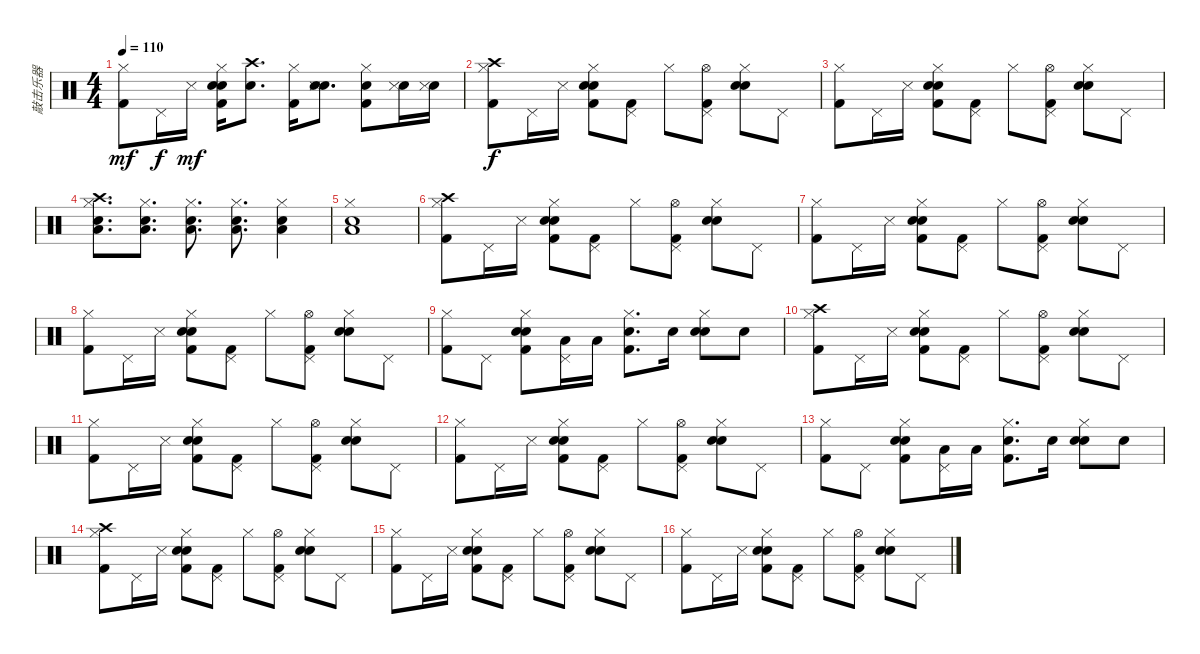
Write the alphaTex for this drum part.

\track ("敲击乐器" "敲击乐器") {instrument percussion}
\staff {score}
\articulation defaults
\ts (4 4)
\tempo 110
\clef neutral
\ks c
("Hi-Hat (closed)" "Kick (hit) 2").8{dy mf} "Pedal Hi-Hat (hit)".16{dy f} "Snare (side stick) 3".16{dy mf} ("Hand Clap (hit)" "Electric Snare (hit)" "Hi-Hat (closed)" "Kick (hit) 2").16 ("Crash high (hit)" "Snare (hit) 2").8{d} ("Hi-Hat (closed)" "Kick (hit) 2").16 ("Hand Clap (hit)" "Snare (side stick) 3" "Electric Snare (hit)").8{d} ("Hi-Hat (closed)" "Electric Snare (hit)" "Kick (hit) 2").8 ("Hand Clap (hit)" "Snare (side stick) 3").16 ("Hand Clap (hit)" "Snare (side stick) 3").16 |
("Crash high (hit)" "Hi-Hat (closed)" "Kick (hit) 2").8{dy f} "Pedal Hi-Hat (hit)".16 "Snare (side stick) 3".16 ("Hand Clap (hit)" "Electric Snare (hit)" "Hi-Hat (closed)" "Kick (hit) 2").8 ("Pedal Hi-Hat (hit)" "Kick (hit) 2").8 "Hi-Hat (closed)".8 ("Hi-Hat (open)" "Pedal Hi-Hat (hit)" "Kick (hit) 2").8 ("Hand Clap (hit)" "Electric Snare (hit)" "Hi-Hat (closed)").8 "Pedal Hi-Hat (hit)".8 |
("Hi-Hat (closed)" "Kick (hit) 2").8 "Pedal Hi-Hat (hit)".16 "Snare (side stick) 3".16 ("Hand Clap (hit)" "Electric Snare (hit)" "Hi-Hat (closed)" "Kick (hit) 2").8 ("Pedal Hi-Hat (hit)" "Kick (hit) 2").8 "Hi-Hat (closed)".8 ("Hi-Hat (open)" "Pedal Hi-Hat (hit)" "Kick (hit) 2").8 ("Hand Clap (hit)" "Electric Snare (hit)" "Hi-Hat (closed)").8 "Pedal Hi-Hat (hit)".8 |
("Crash high (hit)" "Hi-Hat (closed)" "Electric Snare (hit)" "Low Tom (hit)").8{d} ("Hi-Hat (closed)" "Snare (hit) 2" "Low Tom (hit)").8{d} ("Hi-Hat (closed)" "Electric Snare (hit)" "Low Tom (hit)").8{d} ("Hi-Hat (closed)" "Snare (hit) 2" "Low Tom (hit)").8{d} ("Hi-Hat (closed)" "Electric Snare (hit)" "Low Tom (hit)").4 |
("Hi-Hat (closed)" "Electric Snare (hit)" "Low Tom (hit)").1 |
("Crash high (hit)" "Hi-Hat (closed)" "Kick (hit) 2").8 "Pedal Hi-Hat (hit)".16 "Snare (side stick) 3".16 ("Hand Clap (hit)" "Electric Snare (hit)" "Hi-Hat (closed)" "Kick (hit) 2").8 ("Pedal Hi-Hat (hit)" "Kick (hit) 2").8 "Hi-Hat (closed)".8 ("Hi-Hat (open)" "Pedal Hi-Hat (hit)" "Kick (hit) 2").8 ("Hand Clap (hit)" "Electric Snare (hit)" "Hi-Hat (closed)").8 "Pedal Hi-Hat (hit)".8 |
("Hi-Hat (closed)" "Kick (hit) 2").8 "Pedal Hi-Hat (hit)".16 "Snare (side stick) 3".16 ("Hand Clap (hit)" "Electric Snare (hit)" "Hi-Hat (closed)" "Kick (hit) 2").8 ("Pedal Hi-Hat (hit)" "Kick (hit) 2").8 "Hi-Hat (closed)".8 ("Hi-Hat (open)" "Pedal Hi-Hat (hit)" "Kick (hit) 2").8 ("Hand Clap (hit)" "Electric Snare (hit)" "Hi-Hat (closed)").8 "Pedal Hi-Hat (hit)".8 |
("Hi-Hat (closed)" "Kick (hit) 2").8 "Pedal Hi-Hat (hit)".16 "Snare (side stick) 3".16 ("Hand Clap (hit)" "Electric Snare (hit)" "Hi-Hat (closed)" "Kick (hit) 2").8 ("Pedal Hi-Hat (hit)" "Kick (hit) 2").8 "Hi-Hat (closed)".8 ("Hi-Hat (open)" "Pedal Hi-Hat (hit)" "Kick (hit) 2").8 ("Hand Clap (hit)" "Electric Snare (hit)" "Hi-Hat (closed)").8 "Pedal Hi-Hat (hit)".8 |
("Hi-Hat (closed)" "Kick (hit) 2").8 "Pedal Hi-Hat (hit)".8 ("Hand Clap (hit)" "Electric Snare (hit)" "Hi-Hat (closed)" "Kick (hit) 2").8 ("Pedal Hi-Hat (hit)" "Low Tom (hit)").16 "Low Tom (hit)".16 ("Electric Snare (hit)" "Hi-Hat (closed)" "Kick (hit) 2").8{d} "Snare (hit) 2".16 ("Hand Clap (hit)" "Electric Snare (hit)" "Hi-Hat (closed)").8 "Snare (hit) 2".8 |
("Crash high (hit)" "Hi-Hat (closed)" "Kick (hit) 2").8 "Pedal Hi-Hat (hit)".16 "Snare (side stick) 3".16 ("Hand Clap (hit)" "Electric Snare (hit)" "Hi-Hat (closed)" "Kick (hit) 2").8 ("Pedal Hi-Hat (hit)" "Kick (hit) 2").8 "Hi-Hat (closed)".8 ("Hi-Hat (open)" "Pedal Hi-Hat (hit)" "Kick (hit) 2").8 ("Hand Clap (hit)" "Electric Snare (hit)" "Hi-Hat (closed)").8 "Pedal Hi-Hat (hit)".8 |
("Hi-Hat (closed)" "Kick (hit) 2").8 "Pedal Hi-Hat (hit)".16 "Snare (side stick) 3".16 ("Hand Clap (hit)" "Electric Snare (hit)" "Hi-Hat (closed)" "Kick (hit) 2").8 ("Pedal Hi-Hat (hit)" "Kick (hit) 2").8 "Hi-Hat (closed)".8 ("Hi-Hat (open)" "Pedal Hi-Hat (hit)" "Kick (hit) 2").8 ("Hand Clap (hit)" "Electric Snare (hit)" "Hi-Hat (closed)").8 "Pedal Hi-Hat (hit)".8 |
("Hi-Hat (closed)" "Kick (hit) 2").8 "Pedal Hi-Hat (hit)".16 "Snare (side stick) 3".16 ("Hand Clap (hit)" "Electric Snare (hit)" "Hi-Hat (closed)" "Kick (hit) 2").8 ("Pedal Hi-Hat (hit)" "Kick (hit) 2").8 "Hi-Hat (closed)".8 ("Hi-Hat (open)" "Pedal Hi-Hat (hit)" "Kick (hit) 2").8 ("Hand Clap (hit)" "Electric Snare (hit)" "Hi-Hat (closed)").8 "Pedal Hi-Hat (hit)".8 |
("Hi-Hat (closed)" "Kick (hit) 2").8 "Pedal Hi-Hat (hit)".8 ("Hand Clap (hit)" "Electric Snare (hit)" "Hi-Hat (closed)" "Kick (hit) 2").8 ("Pedal Hi-Hat (hit)" "Low Tom (hit)").16 "Low Tom (hit)".16 ("Electric Snare (hit)" "Hi-Hat (closed)" "Kick (hit) 2").8{d} "Snare (hit) 2".16 ("Hand Clap (hit)" "Electric Snare (hit)" "Hi-Hat (closed)").8 "Snare (hit) 2".8 |
("Crash high (hit)" "Hi-Hat (closed)" "Kick (hit) 2").8 "Pedal Hi-Hat (hit)".16 "Snare (side stick) 3".16 ("Hand Clap (hit)" "Electric Snare (hit)" "Hi-Hat (closed)" "Kick (hit) 2").8 ("Pedal Hi-Hat (hit)" "Kick (hit) 2").8 "Hi-Hat (closed)".8 ("Hi-Hat (open)" "Pedal Hi-Hat (hit)" "Kick (hit) 2").8 ("Hand Clap (hit)" "Electric Snare (hit)" "Hi-Hat (closed)").8 "Pedal Hi-Hat (hit)".8 |
("Hi-Hat (closed)" "Kick (hit) 2").8 "Pedal Hi-Hat (hit)".16 "Snare (side stick) 3".16 ("Hand Clap (hit)" "Electric Snare (hit)" "Hi-Hat (closed)" "Kick (hit) 2").8 ("Pedal Hi-Hat (hit)" "Kick (hit) 2").8 "Hi-Hat (closed)".8 ("Hi-Hat (open)" "Pedal Hi-Hat (hit)" "Kick (hit) 2").8 ("Hand Clap (hit)" "Electric Snare (hit)" "Hi-Hat (closed)").8 "Pedal Hi-Hat (hit)".8 |
("Hi-Hat (closed)" "Kick (hit) 2").8 "Pedal Hi-Hat (hit)".16 "Snare (side stick) 3".16 ("Hand Clap (hit)" "Electric Snare (hit)" "Hi-Hat (closed)" "Kick (hit) 2").8 ("Pedal Hi-Hat (hit)" "Kick (hit) 2").8 "Hi-Hat (closed)".8 ("Hi-Hat (open)" "Pedal Hi-Hat (hit)" "Kick (hit) 2").8 ("Hand Clap (hit)" "Electric Snare (hit)" "Hi-Hat (closed)").8 "Pedal Hi-Hat (hit)".8
